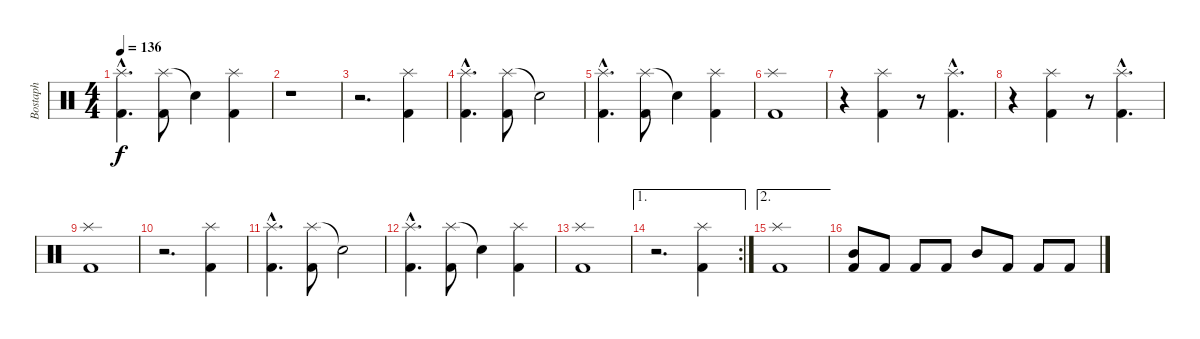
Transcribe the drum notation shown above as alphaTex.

\track ("Bostaph" "Bostaph") {instrument percussion}
\staff {score}
\articulation defaults
\ts (4 4)
\tempo 136
\clef neutral
\ks c
("Splash (hit)"{hac} "Kick (hit) 2"{hac}).4{d dy f} ("Splash (hit)" "Kick (hit) 2").8 "Snare (hit)"{t}.4 ("Splash (hit)" "Kick (hit) 2").4 |
r.1 |
r.2{d} ("Splash (hit)" "Kick (hit) 2").4 |
("Splash (hit)"{hac} "Kick (hit) 2"{hac}).4{d} ("Splash (hit)" "Kick (hit) 2").8 "Snare (hit)"{t}.2 |
("Splash (hit)"{hac} "Kick (hit) 2"{hac}).4{d} ("Splash (hit)" "Kick (hit) 2").8 "Snare (hit)"{t}.4 ("Splash (hit)" "Kick (hit) 2").4 |
("Splash (hit)" "Kick (hit) 2").1 |
r.4 ("Splash (hit)" "Kick (hit) 2").4 r.8 ("Splash (hit)"{hac} "Kick (hit) 2"{hac}).4{d} |
r.4 ("Splash (hit)" "Kick (hit) 2").4 r.8 ("Splash (hit)"{hac} "Kick (hit) 2"{hac}).4{d} |
("Splash (hit)" "Kick (hit) 2").1 |
r.2{d} ("Splash (hit)" "Kick (hit) 2").4 |
("Splash (hit)"{hac} "Kick (hit) 2"{hac}).4{d} ("Splash (hit)" "Kick (hit) 2").8 "Snare (hit)"{t}.2 |
("Splash (hit)"{hac} "Kick (hit) 2"{hac}).4{d} ("Splash (hit)" "Kick (hit) 2").8 "Snare (hit)"{t}.4 ("Splash (hit)" "Kick (hit) 2").4 |
("Splash (hit)" "Kick (hit) 2").1 |
\ae 1
\rc 2
r.2{d} ("Splash (hit)" "Kick (hit) 2").4 |
\ae 2
("Splash (hit)" "Kick (hit) 2").1 |
("Mid Tom (hit)" "Kick (hit) 2").8 "Kick (hit) 2".8 "Kick (hit) 2".8 "Kick (hit) 2".8 "Mid Tom (hit)".8 "Kick (hit) 2".8 "Kick (hit) 2".8 "Kick (hit) 2".8
